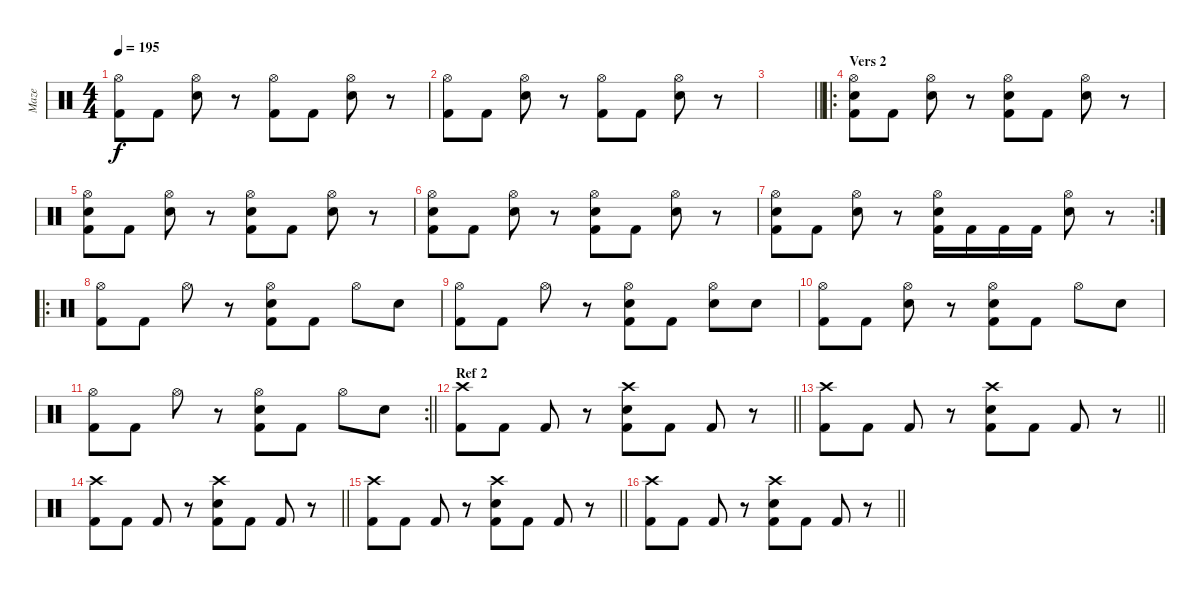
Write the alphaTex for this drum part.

\track ("Maze" "Maze") {instrument percussion}
\staff
\articulation defaults
\ts (4 4)
\tempo 195
\clef neutral
\ks c
("Hi-Hat (open)" "Kick (hit) 2").8{dy f} "Kick (hit) 2".8 ("Snare (hit) 2" "Hi-Hat (open)").8 r.8 ("Hi-Hat (open)" "Kick (hit) 2").8 "Kick (hit) 2".8 ("Snare (hit) 2" "Hi-Hat (open)").8 r.8 |
("Hi-Hat (open)" "Kick (hit) 2").8 "Kick (hit) 2".8 ("Snare (hit) 2" "Hi-Hat (open)").8 r.8 ("Hi-Hat (open)" "Kick (hit) 2").8 "Kick (hit) 2".8 ("Snare (hit) 2" "Hi-Hat (open)").8 r.8 |
\barLineRight lightlight
|
\ro
\section ("" "Vers 2")
("Snare (hit) 2" "Hi-Hat (open)" "Kick (hit) 2").8 "Kick (hit) 2".8 ("Snare (hit) 2" "Hi-Hat (open)").8 r.8 ("Snare (hit) 2" "Hi-Hat (open)" "Kick (hit) 2").8 "Kick (hit) 2".8 ("Snare (hit) 2" "Hi-Hat (open)").8 r.8 |
("Snare (hit) 2" "Hi-Hat (open)" "Kick (hit) 2").8 "Kick (hit) 2".8 ("Snare (hit) 2" "Hi-Hat (open)").8 r.8 ("Snare (hit) 2" "Hi-Hat (open)" "Kick (hit) 2").8 "Kick (hit) 2".8 ("Snare (hit) 2" "Hi-Hat (open)").8 r.8 |
("Snare (hit) 2" "Hi-Hat (open)" "Kick (hit) 2").8 "Kick (hit) 2".8 ("Snare (hit) 2" "Hi-Hat (open)").8 r.8 ("Snare (hit) 2" "Hi-Hat (open)" "Kick (hit) 2").8 "Kick (hit) 2".8 ("Snare (hit) 2" "Hi-Hat (open)").8 r.8 |
\rc 2
("Snare (hit) 2" "Hi-Hat (open)" "Kick (hit) 2").8 "Kick (hit) 2".8 ("Snare (hit) 2" "Hi-Hat (open)").8 r.8 ("Snare (hit) 2" "Hi-Hat (open)" "Kick (hit) 2").16 "Kick (hit) 2".16 "Kick (hit) 2".16 "Kick (hit) 2".16 ("Snare (hit) 2" "Hi-Hat (open)").8 r.8 |
\ro
("Hi-Hat (open)" "Kick (hit) 2").8 "Kick (hit) 2".8 "Hi-Hat (open)".8 r.8 ("Snare (hit) 2" "Hi-Hat (open)" "Kick (hit) 2").8 "Kick (hit) 2".8 "Hi-Hat (open)".8 "Snare (hit) 2".8 |
("Hi-Hat (open)" "Kick (hit) 2").8 "Kick (hit) 2".8 "Hi-Hat (open)".8 r.8 ("Snare (hit) 2" "Hi-Hat (open)" "Kick (hit) 2").8 "Kick (hit) 2".8 ("Snare (hit) 2" "Hi-Hat (open)").8 "Snare (hit) 2".8 |
("Hi-Hat (open)" "Kick (hit) 2").8 "Kick (hit) 2".8 ("Snare (hit) 2" "Hi-Hat (open)").8 r.8 ("Snare (hit) 2" "Hi-Hat (open)" "Kick (hit) 2").8 "Kick (hit) 2".8 "Hi-Hat (open)".8 "Snare (hit) 2".8 |
\rc 2
\barLineRight lightlight
("Hi-Hat (open)" "Kick (hit) 2").8 "Kick (hit) 2".8 "Hi-Hat (open)".8 r.8 ("Snare (hit) 2" "Hi-Hat (open)" "Kick (hit) 2").8 "Kick (hit) 2".8 "Hi-Hat (open)".8 "Snare (hit) 2".8 |
\section ("" "Ref 2")
\barLineRight lightlight
("Crash high (hit)" "Kick (hit) 2").8 "Kick (hit) 2".8 "Kick (hit) 2".8 r.8 ("Snare (hit) 2" "Crash high (hit)" "Kick (hit) 2").8 "Kick (hit) 2".8 "Kick (hit) 2".8 r.8 |
\barLineRight lightlight
("Crash high (hit)" "Kick (hit) 2").8 "Kick (hit) 2".8 "Kick (hit) 2".8 r.8 ("Snare (hit) 2" "Crash high (hit)" "Kick (hit) 2").8 "Kick (hit) 2".8 "Kick (hit) 2".8 r.8 |
\barLineRight lightlight
("Crash high (hit)" "Kick (hit) 2").8 "Kick (hit) 2".8 "Kick (hit) 2".8 r.8 ("Snare (hit) 2" "Crash high (hit)" "Kick (hit) 2").8 "Kick (hit) 2".8 "Kick (hit) 2".8 r.8 |
\barLineRight lightlight
("Crash high (hit)" "Kick (hit) 2").8 "Kick (hit) 2".8 "Kick (hit) 2".8 r.8 ("Snare (hit) 2" "Crash high (hit)" "Kick (hit) 2").8 "Kick (hit) 2".8 "Kick (hit) 2".8 r.8 |
\barLineRight lightlight
("Crash high (hit)" "Kick (hit) 2").8 "Kick (hit) 2".8 "Kick (hit) 2".8 r.8 ("Snare (hit) 2" "Crash high (hit)" "Kick (hit) 2").8 "Kick (hit) 2".8 "Kick (hit) 2".8 r.8
